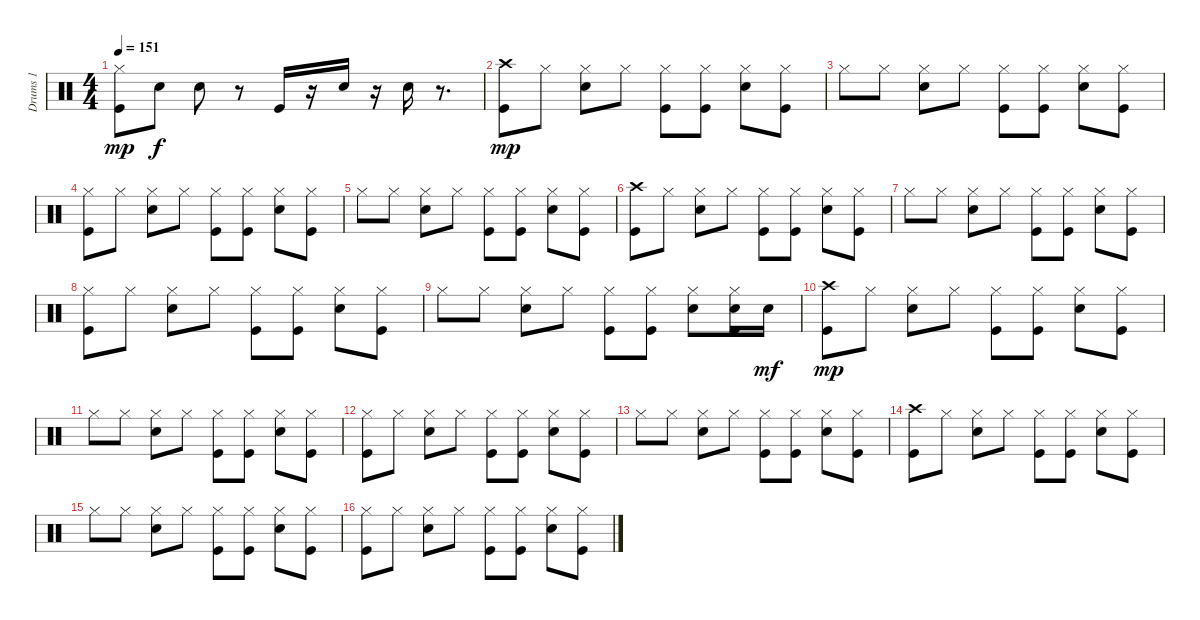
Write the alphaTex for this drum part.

\track ("Drums 1" "Drums 1") {instrument percussion}
\staff {score}
\articulation defaults
\ts (4 4)
\tempo 151
\clef neutral
\ks c
("Hi-Hat (closed)" "Kick (hit)").8{dy mp} "Snare (hit) 2".8{dy f} "Snare (hit) 2".8 r.8 "Kick (hit)".16 r.16 "Snare (hit) 2".16 r.16 "Snare (hit) 2".16 r.8{d} |
("Crash high (hit)" "Kick (hit)").8{dy mp} "Hi-Hat (closed)".8 ("Hi-Hat (closed)" "Snare (hit) 2").8 "Hi-Hat (closed)".8 ("Hi-Hat (closed)" "Kick (hit)").8 ("Kick (hit)" "Hi-Hat (closed)").8 ("Hi-Hat (closed)" "Snare (hit) 2").8 ("Hi-Hat (closed)" "Kick (hit)").8 |
"Hi-Hat (closed)".8 "Hi-Hat (closed)".8 ("Hi-Hat (closed)" "Snare (hit) 2").8 "Hi-Hat (closed)".8 ("Kick (hit)" "Hi-Hat (closed)").8 ("Kick (hit)" "Hi-Hat (closed)").8 ("Snare (hit) 2" "Hi-Hat (closed)").8 ("Hi-Hat (closed)" "Kick (hit)").8 |
("Hi-Hat (closed)" "Kick (hit)").8 "Hi-Hat (closed)".8 ("Hi-Hat (closed)" "Snare (hit) 2").8 "Hi-Hat (closed)".8 ("Hi-Hat (closed)" "Kick (hit)").8 ("Kick (hit)" "Hi-Hat (closed)").8 ("Hi-Hat (closed)" "Snare (hit) 2").8 ("Hi-Hat (closed)" "Kick (hit)").8 |
"Hi-Hat (closed)".8 "Hi-Hat (closed)".8 ("Hi-Hat (closed)" "Snare (hit) 2").8 "Hi-Hat (closed)".8 ("Kick (hit)" "Hi-Hat (closed)").8 ("Kick (hit)" "Hi-Hat (closed)").8 ("Snare (hit) 2" "Hi-Hat (closed)").8 ("Hi-Hat (closed)" "Kick (hit)").8 |
("Crash high (hit)" "Kick (hit)").8 "Hi-Hat (closed)".8 ("Hi-Hat (closed)" "Snare (hit) 2").8 "Hi-Hat (closed)".8 ("Hi-Hat (closed)" "Kick (hit)").8 ("Kick (hit)" "Hi-Hat (closed)").8 ("Hi-Hat (closed)" "Snare (hit) 2").8 ("Hi-Hat (closed)" "Kick (hit)").8 |
"Hi-Hat (closed)".8 "Hi-Hat (closed)".8 ("Hi-Hat (closed)" "Snare (hit) 2").8 "Hi-Hat (closed)".8 ("Kick (hit)" "Hi-Hat (closed)").8 ("Kick (hit)" "Hi-Hat (closed)").8 ("Snare (hit) 2" "Hi-Hat (closed)").8 ("Hi-Hat (closed)" "Kick (hit)").8 |
("Hi-Hat (closed)" "Kick (hit)").8 "Hi-Hat (closed)".8 ("Hi-Hat (closed)" "Snare (hit) 2").8 "Hi-Hat (closed)".8 ("Hi-Hat (closed)" "Kick (hit)").8 ("Kick (hit)" "Hi-Hat (closed)").8 ("Hi-Hat (closed)" "Snare (hit) 2").8 ("Hi-Hat (closed)" "Kick (hit)").8 |
"Hi-Hat (closed)".8 "Hi-Hat (closed)".8 ("Hi-Hat (closed)" "Snare (hit) 2").8 "Hi-Hat (closed)".8 ("Kick (hit)" "Hi-Hat (closed)").8 ("Kick (hit)" "Hi-Hat (closed)").8 ("Snare (hit) 2" "Hi-Hat (closed)").8 ("Snare (hit) 2" "Hi-Hat (closed)" "Kick (hit)").16 "Snare (hit) 2".16{dy mf} |
("Crash high (hit)" "Kick (hit)").8{dy mp} "Hi-Hat (closed)".8 ("Hi-Hat (closed)" "Snare (hit) 2").8 "Hi-Hat (closed)".8 ("Hi-Hat (closed)" "Kick (hit)").8 ("Kick (hit)" "Hi-Hat (closed)").8 ("Hi-Hat (closed)" "Snare (hit) 2").8 ("Hi-Hat (closed)" "Kick (hit)").8 |
"Hi-Hat (closed)".8 "Hi-Hat (closed)".8 ("Hi-Hat (closed)" "Snare (hit) 2").8 "Hi-Hat (closed)".8 ("Kick (hit)" "Hi-Hat (closed)").8 ("Kick (hit)" "Hi-Hat (closed)").8 ("Snare (hit) 2" "Hi-Hat (closed)").8 ("Hi-Hat (closed)" "Kick (hit)").8 |
("Hi-Hat (closed)" "Kick (hit)").8 "Hi-Hat (closed)".8 ("Hi-Hat (closed)" "Snare (hit) 2").8 "Hi-Hat (closed)".8 ("Hi-Hat (closed)" "Kick (hit)").8 ("Kick (hit)" "Hi-Hat (closed)").8 ("Hi-Hat (closed)" "Snare (hit) 2").8 ("Hi-Hat (closed)" "Kick (hit)").8 |
"Hi-Hat (closed)".8 "Hi-Hat (closed)".8 ("Hi-Hat (closed)" "Snare (hit) 2").8 "Hi-Hat (closed)".8 ("Kick (hit)" "Hi-Hat (closed)").8 ("Kick (hit)" "Hi-Hat (closed)").8 ("Snare (hit) 2" "Hi-Hat (closed)").8 ("Hi-Hat (closed)" "Kick (hit)").8 |
("Crash high (hit)" "Kick (hit)").8 "Hi-Hat (closed)".8 ("Hi-Hat (closed)" "Snare (hit) 2").8 "Hi-Hat (closed)".8 ("Hi-Hat (closed)" "Kick (hit)").8 ("Kick (hit)" "Hi-Hat (closed)").8 ("Hi-Hat (closed)" "Snare (hit) 2").8 ("Hi-Hat (closed)" "Kick (hit)").8 |
"Hi-Hat (closed)".8 "Hi-Hat (closed)".8 ("Hi-Hat (closed)" "Snare (hit) 2").8 "Hi-Hat (closed)".8 ("Kick (hit)" "Hi-Hat (closed)").8 ("Kick (hit)" "Hi-Hat (closed)").8 ("Snare (hit) 2" "Hi-Hat (closed)").8 ("Hi-Hat (closed)" "Kick (hit)").8 |
("Hi-Hat (closed)" "Kick (hit)").8 "Hi-Hat (closed)".8 ("Hi-Hat (closed)" "Snare (hit) 2").8 "Hi-Hat (closed)".8 ("Hi-Hat (closed)" "Kick (hit)").8 ("Kick (hit)" "Hi-Hat (closed)").8 ("Hi-Hat (closed)" "Snare (hit) 2").8 ("Hi-Hat (closed)" "Kick (hit)").8
